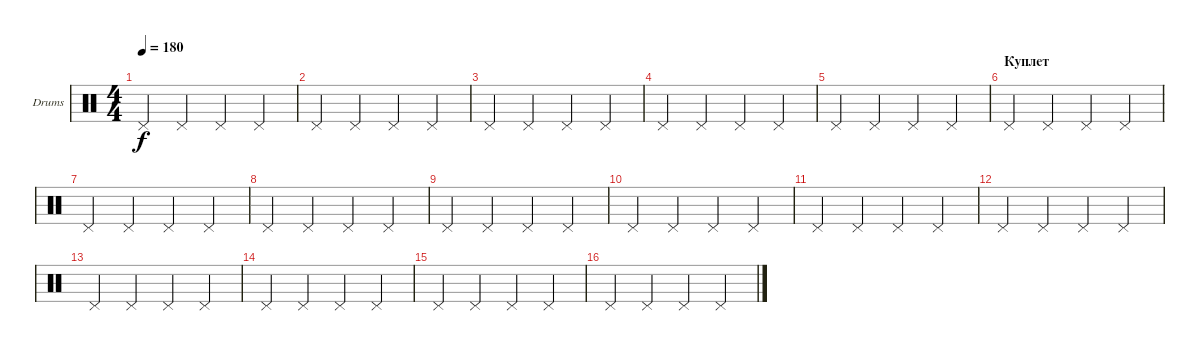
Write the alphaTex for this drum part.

\defaultSystemsLayout 4
\bracketExtendMode groupsimilarinstruments
\firstSystemTrackNameOrientation horizontal
\otherSystemsTrackNameOrientation horizontal
\track ("Drumkit" "Drums") {instrument percussion}
\staff {score}
\articulation defaults
\ts (4 4)
\tempo 180
\clef neutral
\ks c "Pedal Hi-Hat (hit)".4{dy f} "Pedal Hi-Hat (hit)".4 "Pedal Hi-Hat (hit)".4 "Pedal Hi-Hat (hit)".4
|
"Pedal Hi-Hat (hit)".4 "Pedal Hi-Hat (hit)".4 "Pedal Hi-Hat (hit)".4 "Pedal Hi-Hat (hit)".4 |
"Pedal Hi-Hat (hit)".4 "Pedal Hi-Hat (hit)".4 "Pedal Hi-Hat (hit)".4 "Pedal Hi-Hat (hit)".4 |
"Pedal Hi-Hat (hit)".4 "Pedal Hi-Hat (hit)".4 "Pedal Hi-Hat (hit)".4 "Pedal Hi-Hat (hit)".4 |
"Pedal Hi-Hat (hit)".4 "Pedal Hi-Hat (hit)".4 "Pedal Hi-Hat (hit)".4 "Pedal Hi-Hat (hit)".4 |
\section ("" "Куплет")
"Pedal Hi-Hat (hit)".4 "Pedal Hi-Hat (hit)".4 "Pedal Hi-Hat (hit)".4 "Pedal Hi-Hat (hit)".4 |
"Pedal Hi-Hat (hit)".4 "Pedal Hi-Hat (hit)".4 "Pedal Hi-Hat (hit)".4 "Pedal Hi-Hat (hit)".4 |
"Pedal Hi-Hat (hit)".4 "Pedal Hi-Hat (hit)".4 "Pedal Hi-Hat (hit)".4 "Pedal Hi-Hat (hit)".4 |
"Pedal Hi-Hat (hit)".4 "Pedal Hi-Hat (hit)".4 "Pedal Hi-Hat (hit)".4 "Pedal Hi-Hat (hit)".4 |
"Pedal Hi-Hat (hit)".4 "Pedal Hi-Hat (hit)".4 "Pedal Hi-Hat (hit)".4 "Pedal Hi-Hat (hit)".4 |
"Pedal Hi-Hat (hit)".4 "Pedal Hi-Hat (hit)".4 "Pedal Hi-Hat (hit)".4 "Pedal Hi-Hat (hit)".4 |
"Pedal Hi-Hat (hit)".4 "Pedal Hi-Hat (hit)".4 "Pedal Hi-Hat (hit)".4 "Pedal Hi-Hat (hit)".4 |
"Pedal Hi-Hat (hit)".4 "Pedal Hi-Hat (hit)".4 "Pedal Hi-Hat (hit)".4 "Pedal Hi-Hat (hit)".4 |
"Pedal Hi-Hat (hit)".4 "Pedal Hi-Hat (hit)".4 "Pedal Hi-Hat (hit)".4 "Pedal Hi-Hat (hit)".4 |
"Pedal Hi-Hat (hit)".4 "Pedal Hi-Hat (hit)".4 "Pedal Hi-Hat (hit)".4 "Pedal Hi-Hat (hit)".4 |
"Pedal Hi-Hat (hit)".4 "Pedal Hi-Hat (hit)".4 "Pedal Hi-Hat (hit)".4 "Pedal Hi-Hat (hit)".4
